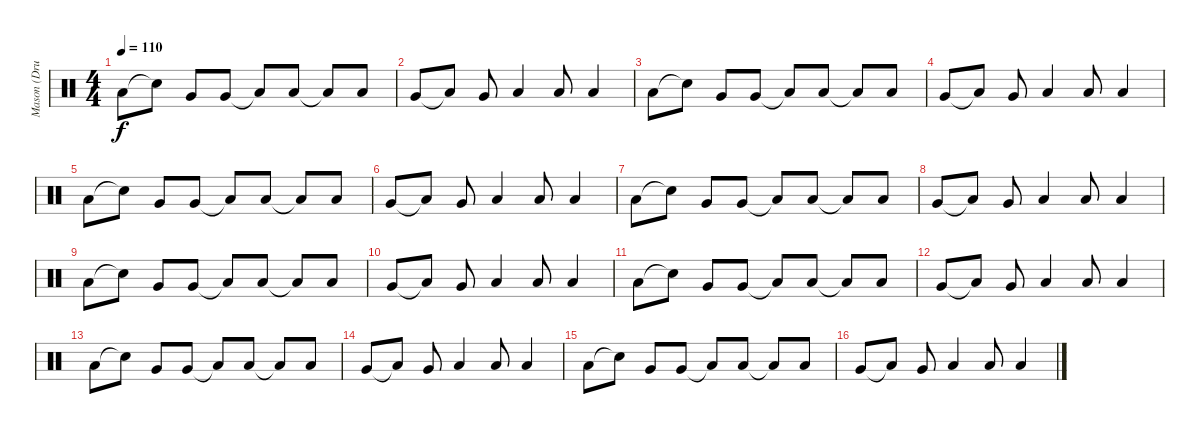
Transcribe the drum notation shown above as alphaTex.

\track ("Mason (Drums)" "Mason (Dru") {instrument percussion}
\staff {score}
\articulation defaults
\ts (4 4)
\tempo 110
\clef neutral
\ks c "Low Tom (hit)".8{dy f} "Snare (hit)"{t}.8 "Very Low Tom (hit)".8 "Very Low Tom (hit)".8 "Low Floor Tom (hit)"{t}.8 "Low Floor Tom (hit)".8 "Low Tom (hit)"{t}.8 "Low Tom (hit)".8
|
"Very Low Tom (hit)".8 "Low Floor Tom (hit)"{t}.8 "Very Low Tom (hit)".8 "Low Tom (hit)".4 "Low Floor Tom (hit)".8 "Low Floor Tom (hit)".4 |
"Low Tom (hit)".8 "Snare (hit)"{t}.8 "Very Low Tom (hit)".8 "Very Low Tom (hit)".8 "Low Floor Tom (hit)"{t}.8 "Low Floor Tom (hit)".8 "Low Tom (hit)"{t}.8 "Low Tom (hit)".8 |
"Very Low Tom (hit)".8 "Low Floor Tom (hit)"{t}.8 "Very Low Tom (hit)".8 "Low Tom (hit)".4 "Low Floor Tom (hit)".8 "Low Floor Tom (hit)".4 |
"Low Tom (hit)".8 "Snare (hit)"{t}.8 "Very Low Tom (hit)".8 "Very Low Tom (hit)".8 "Low Floor Tom (hit)"{t}.8 "Low Floor Tom (hit)".8 "Low Tom (hit)"{t}.8 "Low Tom (hit)".8 |
"Very Low Tom (hit)".8 "Low Floor Tom (hit)"{t}.8 "Very Low Tom (hit)".8 "Low Tom (hit)".4 "Low Floor Tom (hit)".8 "Low Floor Tom (hit)".4 |
"Low Tom (hit)".8 "Snare (hit)"{t}.8 "Very Low Tom (hit)".8 "Very Low Tom (hit)".8 "Low Floor Tom (hit)"{t}.8 "Low Floor Tom (hit)".8 "Low Tom (hit)"{t}.8 "Low Tom (hit)".8 |
"Very Low Tom (hit)".8 "Low Floor Tom (hit)"{t}.8 "Very Low Tom (hit)".8 "Low Tom (hit)".4 "Low Floor Tom (hit)".8 "Low Floor Tom (hit)".4 |
"Low Tom (hit)".8 "Snare (hit)"{t}.8 "Very Low Tom (hit)".8 "Very Low Tom (hit)".8 "Low Floor Tom (hit)"{t}.8 "Low Floor Tom (hit)".8 "Low Tom (hit)"{t}.8 "Low Tom (hit)".8 |
"Very Low Tom (hit)".8 "Low Floor Tom (hit)"{t}.8 "Very Low Tom (hit)".8 "Low Tom (hit)".4 "Low Floor Tom (hit)".8 "Low Floor Tom (hit)".4 |
"Low Tom (hit)".8 "Snare (hit)"{t}.8 "Very Low Tom (hit)".8 "Very Low Tom (hit)".8 "Low Floor Tom (hit)"{t}.8 "Low Floor Tom (hit)".8 "Low Tom (hit)"{t}.8 "Low Tom (hit)".8 |
"Very Low Tom (hit)".8 "Low Floor Tom (hit)"{t}.8 "Very Low Tom (hit)".8 "Low Tom (hit)".4 "Low Floor Tom (hit)".8 "Low Floor Tom (hit)".4 |
"Low Tom (hit)".8 "Snare (hit)"{t}.8 "Very Low Tom (hit)".8 "Very Low Tom (hit)".8 "Low Floor Tom (hit)"{t}.8 "Low Floor Tom (hit)".8 "Low Tom (hit)"{t}.8 "Low Tom (hit)".8 |
"Very Low Tom (hit)".8 "Low Floor Tom (hit)"{t}.8 "Very Low Tom (hit)".8 "Low Tom (hit)".4 "Low Floor Tom (hit)".8 "Low Floor Tom (hit)".4 |
"Low Tom (hit)".8 "Snare (hit)"{t}.8 "Very Low Tom (hit)".8 "Very Low Tom (hit)".8 "Low Floor Tom (hit)"{t}.8 "Low Floor Tom (hit)".8 "Low Tom (hit)"{t}.8 "Low Tom (hit)".8 |
"Very Low Tom (hit)".8 "Low Floor Tom (hit)"{t}.8 "Very Low Tom (hit)".8 "Low Tom (hit)".4 "Low Floor Tom (hit)".8 "Low Floor Tom (hit)".4
